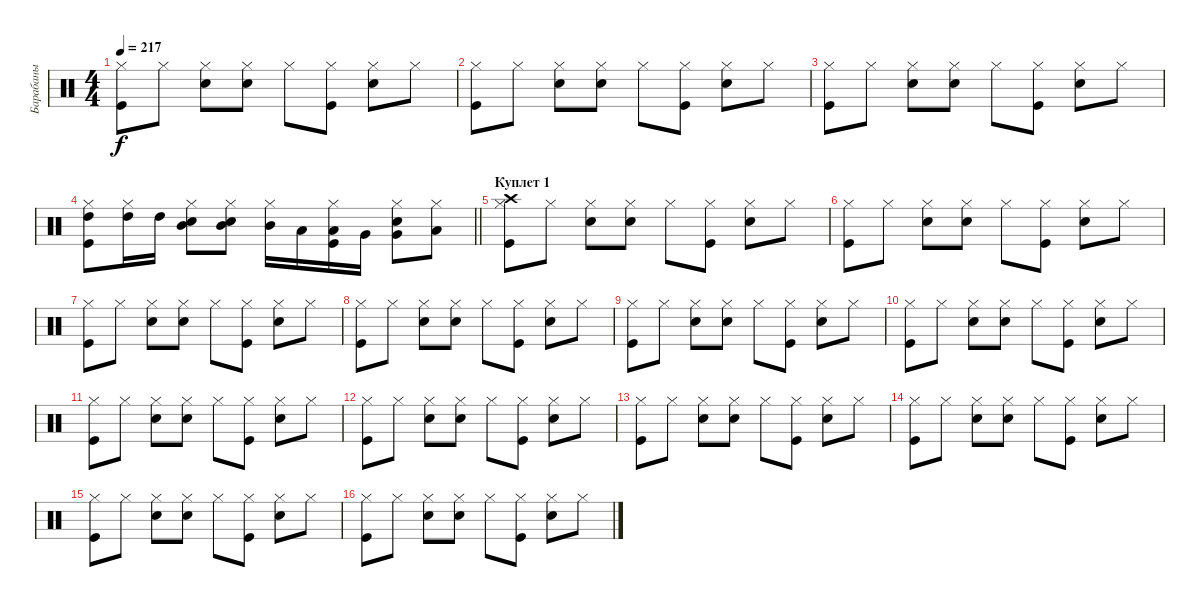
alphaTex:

\track ("Барабаны" "Барабаны") {instrument percussion}
\staff {score}
\articulation defaults
\ts (4 4)
\tempo 217
\clef neutral
\ks c
("Kick (hit)" "Hi-Hat (closed)").8{dy f} "Hi-Hat (closed)".8 ("Snare (hit) 2" "Hi-Hat (closed)").8 ("Snare (hit) 2" "Hi-Hat (closed)").8 "Hi-Hat (closed)".8 ("Kick (hit)" "Hi-Hat (closed)").8 ("Snare (hit) 2" "Hi-Hat (closed)").8 "Hi-Hat (closed)".8 |
("Kick (hit)" "Hi-Hat (closed)").8 "Hi-Hat (closed)".8 ("Snare (hit) 2" "Hi-Hat (closed)").8 ("Snare (hit) 2" "Hi-Hat (closed)").8 "Hi-Hat (closed)".8 ("Kick (hit)" "Hi-Hat (closed)").8 ("Snare (hit) 2" "Hi-Hat (closed)").8 "Hi-Hat (closed)".8 |
("Kick (hit)" "Hi-Hat (closed)").8 "Hi-Hat (closed)".8 ("Snare (hit) 2" "Hi-Hat (closed)").8 ("Snare (hit) 2" "Hi-Hat (closed)").8 "Hi-Hat (closed)".8 ("Kick (hit)" "Hi-Hat (closed)").8 ("Snare (hit) 2" "Hi-Hat (closed)").8 "Hi-Hat (closed)".8 |
\barLineRight lightlight
("Kick (hit)" "Hi-Hat (closed)" "High Tom (hit)").8 ("Hi-Hat (closed)" "High Tom (hit)").16 "High Tom (hit)".16 ("Snare (hit) 2" "Hi-Hat (closed)" "Mid Tom (hit)").8 ("Snare (hit) 2" "Hi-Hat (closed)" "Mid Tom (hit)").8 ("Hi-Hat (closed)" "Mid Tom (hit)").16 "Low Tom (hit)".16 ("Kick (hit)" "Hi-Hat (closed)" "Low Tom (hit)").16 "Very Low Tom (hit)".16 ("Snare (hit) 2" "Hi-Hat (closed)" "Very Low Tom (hit)").8 ("Hi-Hat (closed)" "Low Floor Tom (hit)").8 |
\section ("" "Куплет 1")
("Kick (hit)" "Hi-Hat (closed)" "Crash high (hit)").8 "Hi-Hat (closed)".8 ("Snare (hit) 2" "Hi-Hat (closed)").8 ("Snare (hit) 2" "Hi-Hat (closed)").8 "Hi-Hat (closed)".8 ("Kick (hit)" "Hi-Hat (closed)").8 ("Snare (hit) 2" "Hi-Hat (closed)").8 "Hi-Hat (closed)".8 |
("Kick (hit)" "Hi-Hat (closed)").8 "Hi-Hat (closed)".8 ("Snare (hit) 2" "Hi-Hat (closed)").8 ("Snare (hit) 2" "Hi-Hat (closed)").8 "Hi-Hat (closed)".8 ("Kick (hit)" "Hi-Hat (closed)").8 ("Snare (hit) 2" "Hi-Hat (closed)").8 "Hi-Hat (closed)".8 |
("Kick (hit)" "Hi-Hat (closed)").8 "Hi-Hat (closed)".8 ("Snare (hit) 2" "Hi-Hat (closed)").8 ("Snare (hit) 2" "Hi-Hat (closed)").8 "Hi-Hat (closed)".8 ("Kick (hit)" "Hi-Hat (closed)").8 ("Snare (hit) 2" "Hi-Hat (closed)").8 "Hi-Hat (closed)".8 |
("Kick (hit)" "Hi-Hat (closed)").8 "Hi-Hat (closed)".8 ("Snare (hit) 2" "Hi-Hat (closed)").8 ("Snare (hit) 2" "Hi-Hat (closed)").8 "Hi-Hat (closed)".8 ("Kick (hit)" "Hi-Hat (closed)").8 ("Snare (hit) 2" "Hi-Hat (closed)").8 "Hi-Hat (closed)".8 |
("Kick (hit)" "Hi-Hat (closed)").8 "Hi-Hat (closed)".8 ("Snare (hit) 2" "Hi-Hat (closed)").8 ("Snare (hit) 2" "Hi-Hat (closed)").8 "Hi-Hat (closed)".8 ("Kick (hit)" "Hi-Hat (closed)").8 ("Snare (hit) 2" "Hi-Hat (closed)").8 "Hi-Hat (closed)".8 |
("Kick (hit)" "Hi-Hat (closed)").8 "Hi-Hat (closed)".8 ("Snare (hit) 2" "Hi-Hat (closed)").8 ("Snare (hit) 2" "Hi-Hat (closed)").8 "Hi-Hat (closed)".8 ("Kick (hit)" "Hi-Hat (closed)").8 ("Snare (hit) 2" "Hi-Hat (closed)").8 "Hi-Hat (closed)".8 |
("Kick (hit)" "Hi-Hat (closed)").8 "Hi-Hat (closed)".8 ("Snare (hit) 2" "Hi-Hat (closed)").8 ("Snare (hit) 2" "Hi-Hat (closed)").8 "Hi-Hat (closed)".8 ("Kick (hit)" "Hi-Hat (closed)").8 ("Snare (hit) 2" "Hi-Hat (closed)").8 "Hi-Hat (closed)".8 |
("Kick (hit)" "Hi-Hat (closed)").8 "Hi-Hat (closed)".8 ("Snare (hit) 2" "Hi-Hat (closed)").8 ("Snare (hit) 2" "Hi-Hat (closed)").8 "Hi-Hat (closed)".8 ("Kick (hit)" "Hi-Hat (closed)").8 ("Snare (hit) 2" "Hi-Hat (closed)").8 "Hi-Hat (closed)".8 |
("Kick (hit)" "Hi-Hat (closed)").8 "Hi-Hat (closed)".8 ("Snare (hit) 2" "Hi-Hat (closed)").8 ("Snare (hit) 2" "Hi-Hat (closed)").8 "Hi-Hat (closed)".8 ("Kick (hit)" "Hi-Hat (closed)").8 ("Snare (hit) 2" "Hi-Hat (closed)").8 "Hi-Hat (closed)".8 |
("Kick (hit)" "Hi-Hat (closed)").8 "Hi-Hat (closed)".8 ("Snare (hit) 2" "Hi-Hat (closed)").8 ("Snare (hit) 2" "Hi-Hat (closed)").8 "Hi-Hat (closed)".8 ("Kick (hit)" "Hi-Hat (closed)").8 ("Snare (hit) 2" "Hi-Hat (closed)").8 "Hi-Hat (closed)".8 |
("Kick (hit)" "Hi-Hat (closed)").8 "Hi-Hat (closed)".8 ("Snare (hit) 2" "Hi-Hat (closed)").8 ("Snare (hit) 2" "Hi-Hat (closed)").8 "Hi-Hat (closed)".8 ("Kick (hit)" "Hi-Hat (closed)").8 ("Snare (hit) 2" "Hi-Hat (closed)").8 "Hi-Hat (closed)".8 |
("Kick (hit)" "Hi-Hat (closed)").8 "Hi-Hat (closed)".8 ("Snare (hit) 2" "Hi-Hat (closed)").8 ("Snare (hit) 2" "Hi-Hat (closed)").8 "Hi-Hat (closed)".8 ("Kick (hit)" "Hi-Hat (closed)").8 ("Snare (hit) 2" "Hi-Hat (closed)").8 "Hi-Hat (closed)".8
